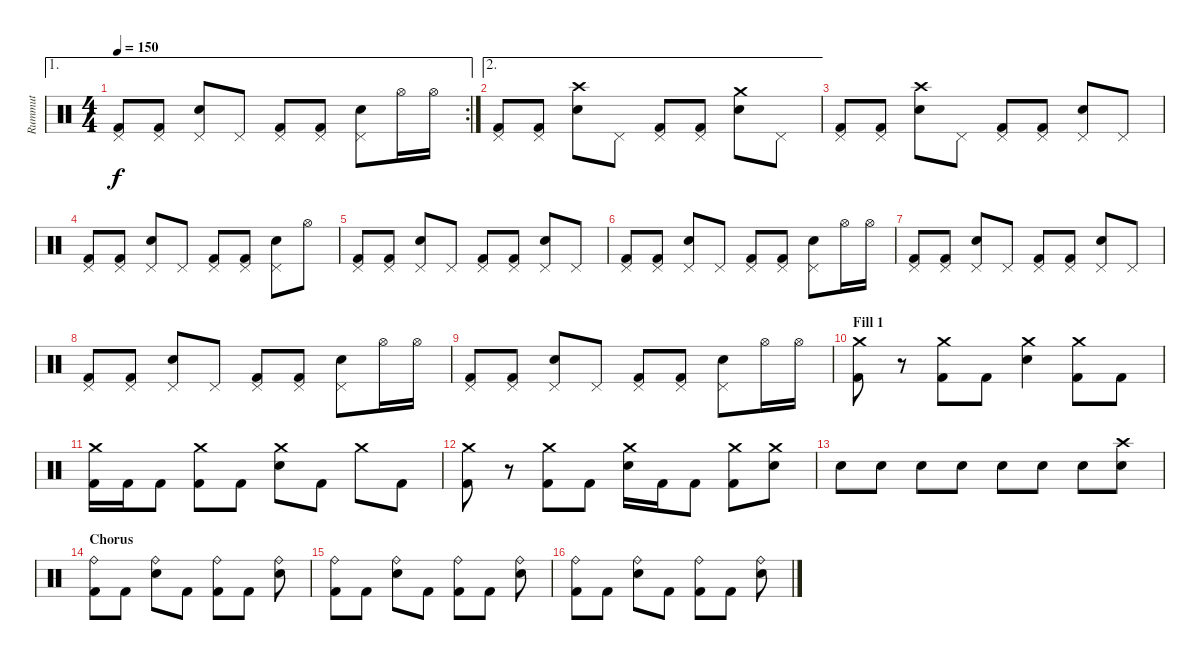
\track ("Rummut" "Rummut") {instrument percussion}
\staff {score}
\articulation defaults
\ae 1
\rc 2
\ts (4 4)
\tempo 150
\clef neutral
\ks c
("Pedal Hi-Hat (hit)" "Kick (hit) 2").8{dy f} ("Pedal Hi-Hat (hit)" "Kick (hit) 2").8 ("Pedal Hi-Hat (hit)" "Snare (hit) 2").8 "Pedal Hi-Hat (hit)".8 ("Pedal Hi-Hat (hit)" "Kick (hit) 2").8 ("Pedal Hi-Hat (hit)" "Kick (hit) 2").8 ("Pedal Hi-Hat (hit)" "Snare (hit) 2").8 "Hi-Hat (open)".16 "Hi-Hat (open)".16 |
\ae 2
("Pedal Hi-Hat (hit)" "Kick (hit) 2").8 ("Pedal Hi-Hat (hit)" "Kick (hit) 2").8 ("Crash high (hit)" "Snare (hit) 2").8 "Pedal Hi-Hat (hit)".8 ("Pedal Hi-Hat (hit)" "Kick (hit) 2").8 ("Pedal Hi-Hat (hit)" "Kick (hit) 2").8 ("Crash medium (hit)" "Snare (hit) 2").8 "Pedal Hi-Hat (hit)".8 |
("Pedal Hi-Hat (hit)" "Kick (hit) 2").8 ("Pedal Hi-Hat (hit)" "Kick (hit) 2").8 ("Crash high (hit)" "Snare (hit) 2").8 "Pedal Hi-Hat (hit)".8 ("Pedal Hi-Hat (hit)" "Kick (hit) 2").8 ("Pedal Hi-Hat (hit)" "Kick (hit) 2").8 ("Pedal Hi-Hat (hit)" "Snare (hit) 2").8 "Pedal Hi-Hat (hit)".8 |
("Pedal Hi-Hat (hit)" "Kick (hit) 2").8 ("Pedal Hi-Hat (hit)" "Kick (hit) 2").8 ("Pedal Hi-Hat (hit)" "Snare (hit) 2").8 "Pedal Hi-Hat (hit)".8 ("Pedal Hi-Hat (hit)" "Kick (hit) 2").8 ("Pedal Hi-Hat (hit)" "Kick (hit) 2").8 ("Pedal Hi-Hat (hit)" "Snare (hit) 2").8 "Hi-Hat (open)".8 |
("Pedal Hi-Hat (hit)" "Kick (hit) 2").8 ("Pedal Hi-Hat (hit)" "Kick (hit) 2").8 ("Pedal Hi-Hat (hit)" "Snare (hit) 2").8 "Pedal Hi-Hat (hit)".8 ("Pedal Hi-Hat (hit)" "Kick (hit) 2").8 ("Pedal Hi-Hat (hit)" "Kick (hit) 2").8 ("Pedal Hi-Hat (hit)" "Snare (hit) 2").8 "Pedal Hi-Hat (hit)".8 |
("Pedal Hi-Hat (hit)" "Kick (hit) 2").8 ("Pedal Hi-Hat (hit)" "Kick (hit) 2").8 ("Pedal Hi-Hat (hit)" "Snare (hit) 2").8 "Pedal Hi-Hat (hit)".8 ("Pedal Hi-Hat (hit)" "Kick (hit) 2").8 ("Pedal Hi-Hat (hit)" "Kick (hit) 2").8 ("Pedal Hi-Hat (hit)" "Snare (hit) 2").8 "Hi-Hat (open)".16 "Hi-Hat (open)".16 |
("Pedal Hi-Hat (hit)" "Kick (hit) 2").8 ("Pedal Hi-Hat (hit)" "Kick (hit) 2").8 ("Pedal Hi-Hat (hit)" "Snare (hit) 2").8 "Pedal Hi-Hat (hit)".8 ("Pedal Hi-Hat (hit)" "Kick (hit) 2").8 ("Pedal Hi-Hat (hit)" "Kick (hit) 2").8 ("Pedal Hi-Hat (hit)" "Snare (hit) 2").8 "Pedal Hi-Hat (hit)".8 |
("Pedal Hi-Hat (hit)" "Kick (hit) 2").8 ("Pedal Hi-Hat (hit)" "Kick (hit) 2").8 ("Pedal Hi-Hat (hit)" "Snare (hit) 2").8 "Pedal Hi-Hat (hit)".8 ("Pedal Hi-Hat (hit)" "Kick (hit) 2").8 ("Pedal Hi-Hat (hit)" "Kick (hit) 2").8 ("Pedal Hi-Hat (hit)" "Snare (hit) 2").8 "Hi-Hat (open)".16 "Hi-Hat (open)".16 |
("Pedal Hi-Hat (hit)" "Kick (hit) 2").8 ("Pedal Hi-Hat (hit)" "Kick (hit) 2").8 ("Pedal Hi-Hat (hit)" "Snare (hit) 2").8 "Pedal Hi-Hat (hit)".8 ("Pedal Hi-Hat (hit)" "Kick (hit) 2").8 ("Pedal Hi-Hat (hit)" "Kick (hit) 2").8 ("Pedal Hi-Hat (hit)" "Snare (hit) 2").8 "Hi-Hat (open)".16 "Hi-Hat (open)".16 |
\section ("" "Fill 1")
("Crash medium (hit)" "Kick (hit) 2").8 r.8 ("Crash medium (hit)" "Kick (hit) 2").8 "Kick (hit) 2".8 ("Crash medium (hit)" "Snare (hit) 2").4 ("Crash medium (hit)" "Kick (hit) 2").8 "Kick (hit) 2".8 |
("Crash medium (hit)" "Kick (hit) 2").16 "Kick (hit) 2".16 "Kick (hit) 2".8 ("Crash medium (hit)" "Kick (hit) 2").8 "Kick (hit) 2".8 ("Crash medium (hit)" "Snare (hit) 2").8 "Kick (hit) 2".8 "Crash medium (hit)".8 "Kick (hit) 2".8 |
("Crash medium (hit)" "Kick (hit) 2").8 r.8 ("Crash medium (hit)" "Kick (hit) 2").8 "Kick (hit) 2".8 ("Crash medium (hit)" "Snare (hit) 2").16 "Kick (hit) 2".16 "Kick (hit) 2".8 ("Crash medium (hit)" "Kick (hit) 2").8 ("Crash medium (hit)" "Snare (hit) 2").8 |
"Snare (hit) 2".8 "Snare (hit) 2".8 "Snare (hit) 2".8 "Snare (hit) 2".8 "Snare (hit) 2".8 "Snare (hit) 2".8 "Snare (hit) 2".8 ("Crash high (hit)" "Snare (hit) 2").8 |
\section ("" "Chorus")
("Ride (bell)" "Kick (hit) 2").8 "Kick (hit) 2".8 ("Ride (bell)" "Snare (hit) 2").8 "Kick (hit) 2".8 ("Ride (bell)" "Kick (hit) 2").8 "Kick (hit) 2".8 ("Ride (bell)" "Snare (hit) 2").8 |
("Ride (bell)" "Kick (hit) 2").8 "Kick (hit) 2".8 ("Ride (bell)" "Snare (hit) 2").8 "Kick (hit) 2".8 ("Ride (bell)" "Kick (hit) 2").8 "Kick (hit) 2".8 ("Ride (bell)" "Snare (hit) 2").8 |
("Ride (bell)" "Kick (hit) 2").8 "Kick (hit) 2".8 ("Ride (bell)" "Snare (hit) 2").8 "Kick (hit) 2".8 ("Ride (bell)" "Kick (hit) 2").8 "Kick (hit) 2".8 ("Ride (bell)" "Snare (hit) 2").8
